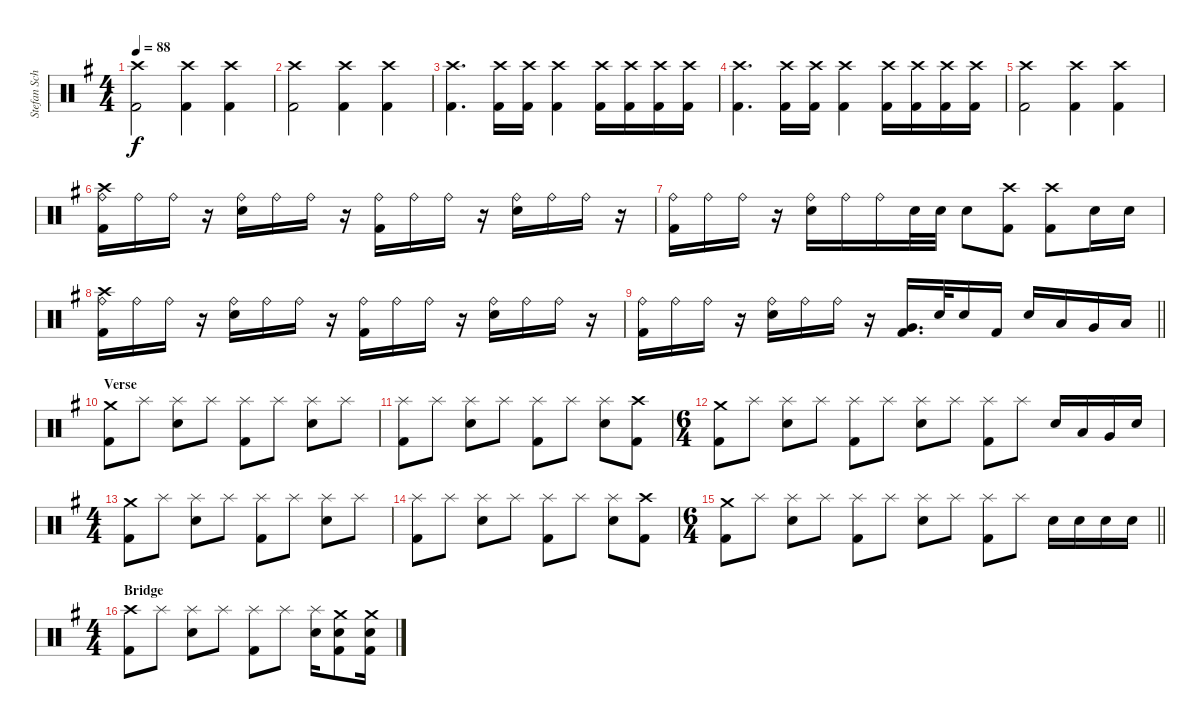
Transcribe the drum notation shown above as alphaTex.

\track ("Stefan Schwarzmann" "Stefan Sch") {instrument percussion}
\staff {score}
\articulation defaults
\ts (4 4)
\tempo 88
\clef neutral
\ks eminor
("Crash high (hit)" "Kick (hit) 2").2{dy f} ("Crash high (hit)" "Kick (hit) 2").4 ("Crash high (hit)" "Kick (hit) 2").4 |
("Crash high (hit)" "Kick (hit) 2").2 ("Crash high (hit)" "Kick (hit) 2").4 ("Crash high (hit)" "Kick (hit) 2").4 |
("Crash high (hit)" "Kick (hit) 2").4{d} ("Crash high (hit)" "Kick (hit) 2").16 ("Crash high (hit)" "Kick (hit) 2").16 ("Crash high (hit)" "Kick (hit) 2").4 ("Crash high (hit)" "Kick (hit) 2").16 ("Crash high (hit)" "Kick (hit) 2").16 ("Crash high (hit)" "Kick (hit) 2").16 ("Crash high (hit)" "Kick (hit) 2").16 |
("Crash high (hit)" "Kick (hit) 2").4{d} ("Crash high (hit)" "Kick (hit) 2").16 ("Crash high (hit)" "Kick (hit) 2").16 ("Crash high (hit)" "Kick (hit) 2").4 ("Crash high (hit)" "Kick (hit) 2").16 ("Crash high (hit)" "Kick (hit) 2").16 ("Crash high (hit)" "Kick (hit) 2").16 ("Crash high (hit)" "Kick (hit) 2").16 |
("Crash high (hit)" "Kick (hit) 2").2 ("Crash high (hit)" "Kick (hit) 2").4 ("Crash high (hit)" "Kick (hit) 2").4 |
("Crash high (hit)" "Ride (bell)" "Kick (hit) 2").16 "Ride (bell)".16 "Ride (bell)".16 r.16 ("Ride (bell)" "Snare (hit) 2").16 "Ride (bell)".16 "Ride (bell)".16 r.16 ("Ride (bell)" "Kick (hit) 2").16 "Ride (bell)".16 "Ride (bell)".16 r.16 ("Ride (bell)" "Snare (hit) 2").16 "Ride (bell)".16 "Ride (bell)".16 r.16 |
("Ride (bell)" "Kick (hit) 2").16 "Ride (bell)".16 "Ride (bell)".16 r.16 ("Ride (bell)" "Snare (hit) 2").16 "Ride (bell)".16 "Ride (bell)".16 "Snare (hit) 2".32 "Snare (hit) 2".32 "Snare (hit) 2".8 ("Crash high (hit)" "Kick (hit) 2").8 ("Crash high (hit)" "Kick (hit) 2").8 "Snare (hit) 2".16 "Snare (hit) 2".16 |
("Crash high (hit)" "Ride (bell)" "Kick (hit) 2").16 "Ride (bell)".16 "Ride (bell)".16 r.16 ("Ride (bell)" "Snare (hit) 2").16 "Ride (bell)".16 "Ride (bell)".16 r.16 ("Ride (bell)" "Kick (hit) 2").16 "Ride (bell)".16 "Ride (bell)".16 r.16 ("Ride (bell)" "Snare (hit) 2").16 "Ride (bell)".16 "Ride (bell)".16 r.16 |
\barLineRight lightlight
("Ride (bell)" "Kick (hit) 2").16 "Ride (bell)".16 "Ride (bell)".16 r.16 ("Ride (bell)" "Snare (hit) 2").16 "Ride (bell)".16 "Ride (bell)".16 r.16 ("Very Low Tom (hit)" "Kick (hit) 2").16{d} "Snare (hit) 2".32 "Snare (hit) 2".16 "Kick (hit) 2".16 "Snare (hit) 2".16 "Low Tom (hit)".16 "Very Low Tom (hit)".16 "Low Floor Tom (hit)".16 |
\section ("" "Verse")
("Crash medium (hit)" "Kick (hit) 2").8 "Splash (hit)".8 ("Splash (hit)" "Snare (hit) 2").8 "Splash (hit)".8 ("Splash (hit)" "Kick (hit) 2").8 "Splash (hit)".8 ("Splash (hit)" "Snare (hit) 2").8 "Splash (hit)".8 |
("Splash (hit)" "Kick (hit) 2").8 "Splash (hit)".8 ("Splash (hit)" "Snare (hit) 2").8 "Splash (hit)".8 ("Splash (hit)" "Kick (hit) 2").8 "Splash (hit)".8 ("Splash (hit)" "Snare (hit) 2").8 ("Crash high (hit)" "Kick (hit) 2").8 |
\ts (6 4)
("Crash medium (hit)" "Kick (hit) 2").8 "Splash (hit)".8 ("Splash (hit)" "Snare (hit) 2").8 "Splash (hit)".8 ("Splash (hit)" "Kick (hit) 2").8 "Splash (hit)".8 ("Splash (hit)" "Snare (hit) 2").8 "Splash (hit)".8 ("Splash (hit)" "Kick (hit) 2").8 "Splash (hit)".8 "Snare (hit) 2".16 "Low Tom (hit)".16 "Very Low Tom (hit)".16 "Snare (hit) 2".16 |
\ts (4 4)
("Crash medium (hit)" "Kick (hit) 2").8 "Splash (hit)".8 ("Splash (hit)" "Snare (hit) 2").8 "Splash (hit)".8 ("Splash (hit)" "Kick (hit) 2").8 "Splash (hit)".8 ("Splash (hit)" "Snare (hit) 2").8 "Splash (hit)".8 |
("Splash (hit)" "Kick (hit) 2").8 "Splash (hit)".8 ("Splash (hit)" "Snare (hit) 2").8 "Splash (hit)".8 ("Splash (hit)" "Kick (hit) 2").8 "Splash (hit)".8 ("Splash (hit)" "Snare (hit) 2").8 ("Crash high (hit)" "Kick (hit) 2").8 |
\ts (6 4)
\barLineRight lightlight
("Crash medium (hit)" "Kick (hit) 2").8 "Splash (hit)".8 ("Splash (hit)" "Snare (hit) 2").8 "Splash (hit)".8 ("Splash (hit)" "Kick (hit) 2").8 "Splash (hit)".8 ("Splash (hit)" "Snare (hit) 2").8 "Splash (hit)".8 ("Splash (hit)" "Kick (hit) 2").8 "Splash (hit)".8 "Snare (hit) 2".16 "Snare (hit) 2".16 "Snare (hit) 2".16 "Snare (hit) 2".16 |
\ts (4 4)
\section ("" "Bridge")
("Crash high (hit)" "Kick (hit) 2").8 "Splash (hit)".8 ("Splash (hit)" "Snare (hit) 2").8 "Splash (hit)".8 ("Splash (hit)" "Kick (hit) 2").8 "Splash (hit)".8 ("Splash (hit)" "Snare (hit) 2").16 ("Crash medium (hit)" "Snare (hit) 2" "Kick (hit) 2").8 ("Crash medium (hit)" "Snare (hit) 2" "Kick (hit) 2").16
